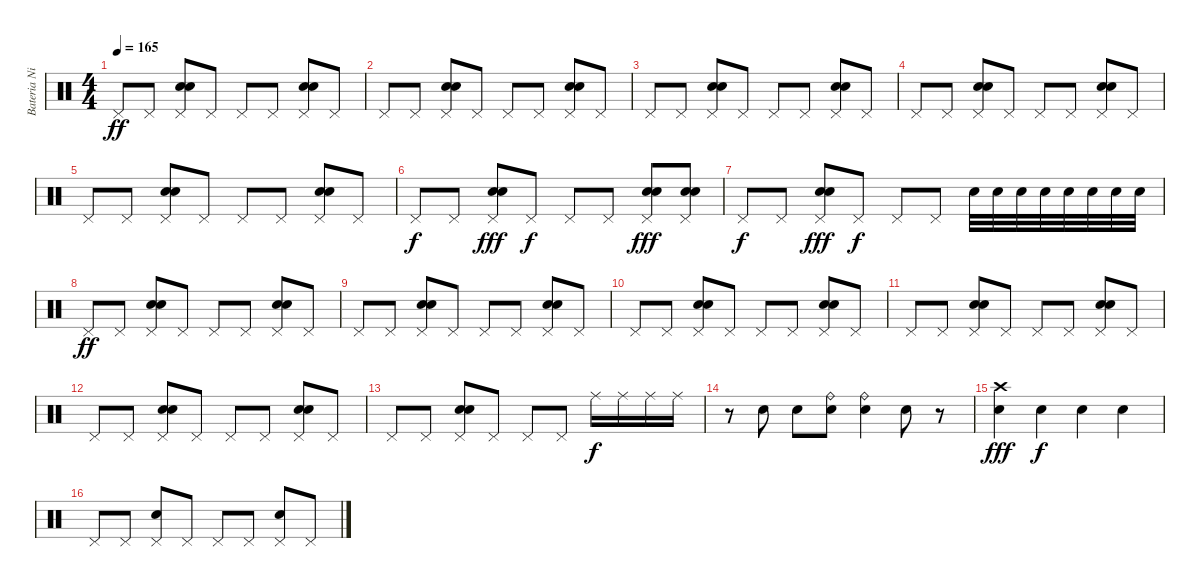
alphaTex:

\track ("Bateria Nicolas Cabrera" "Bateria Ni") {instrument percussion}
\staff {score}
\articulation defaults
\ts (4 4)
\tempo 165
\clef neutral
\ks c "Pedal Hi-Hat (hit)".8{dy ff} "Pedal Hi-Hat (hit)".8
("Electric Snare (hit)" "Electric Snare (hit)" "Pedal Hi-Hat (hit)").8 "Pedal Hi-Hat (hit)".8 "Pedal Hi-Hat (hit)".8 "Pedal Hi-Hat (hit)".8 ("Electric Snare (hit)" "Electric Snare (hit)" "Pedal Hi-Hat (hit)").8 "Pedal Hi-Hat (hit)".8 |
"Pedal Hi-Hat (hit)".8 "Pedal Hi-Hat (hit)".8 ("Electric Snare (hit)" "Electric Snare (hit)" "Pedal Hi-Hat (hit)").8 "Pedal Hi-Hat (hit)".8 "Pedal Hi-Hat (hit)".8 "Pedal Hi-Hat (hit)".8 ("Electric Snare (hit)" "Electric Snare (hit)" "Pedal Hi-Hat (hit)").8 "Pedal Hi-Hat (hit)".8 |
"Pedal Hi-Hat (hit)".8 "Pedal Hi-Hat (hit)".8 ("Electric Snare (hit)" "Electric Snare (hit)" "Pedal Hi-Hat (hit)").8 "Pedal Hi-Hat (hit)".8 "Pedal Hi-Hat (hit)".8 "Pedal Hi-Hat (hit)".8 ("Electric Snare (hit)" "Electric Snare (hit)" "Pedal Hi-Hat (hit)").8 "Pedal Hi-Hat (hit)".8 |
"Pedal Hi-Hat (hit)".8 "Pedal Hi-Hat (hit)".8 ("Electric Snare (hit)" "Electric Snare (hit)" "Pedal Hi-Hat (hit)").8 "Pedal Hi-Hat (hit)".8 "Pedal Hi-Hat (hit)".8 "Pedal Hi-Hat (hit)".8 ("Electric Snare (hit)" "Electric Snare (hit)" "Pedal Hi-Hat (hit)").8 "Pedal Hi-Hat (hit)".8 |
"Pedal Hi-Hat (hit)".8 "Pedal Hi-Hat (hit)".8 ("Electric Snare (hit)" "Electric Snare (hit)" "Pedal Hi-Hat (hit)").8 "Pedal Hi-Hat (hit)".8 "Pedal Hi-Hat (hit)".8 "Pedal Hi-Hat (hit)".8 ("Electric Snare (hit)" "Electric Snare (hit)" "Pedal Hi-Hat (hit)").8 "Pedal Hi-Hat (hit)".8 |
"Pedal Hi-Hat (hit)".8{dy f} "Pedal Hi-Hat (hit)".8 ("Electric Snare (hit)" "Electric Snare (hit)" "Pedal Hi-Hat (hit)").8{dy fff} "Pedal Hi-Hat (hit)".8{dy f} "Pedal Hi-Hat (hit)".8 "Pedal Hi-Hat (hit)".8 ("Electric Snare (hit)" "Electric Snare (hit)" "Pedal Hi-Hat (hit)").8{dy fff} ("Electric Snare (hit)" "Electric Snare (hit)" "Pedal Hi-Hat (hit)").8 |
"Pedal Hi-Hat (hit)".8{dy f} "Pedal Hi-Hat (hit)".8 ("Electric Snare (hit)" "Electric Snare (hit)" "Pedal Hi-Hat (hit)").8{dy fff} "Pedal Hi-Hat (hit)".8{dy f} "Pedal Hi-Hat (hit)".8 "Pedal Hi-Hat (hit)".8 "Electric Snare (hit)".32 "Electric Snare (hit)".32 "Electric Snare (hit)".32 "Snare (hit) 2".32 "Electric Snare (hit)".32 "Electric Snare (hit)".32 "Electric Snare (hit)".32 "Electric Snare (hit)".32 |
"Pedal Hi-Hat (hit)".8{dy ff} "Pedal Hi-Hat (hit)".8 ("Electric Snare (hit)" "Electric Snare (hit)" "Pedal Hi-Hat (hit)").8 "Pedal Hi-Hat (hit)".8 "Pedal Hi-Hat (hit)".8 "Pedal Hi-Hat (hit)".8 ("Electric Snare (hit)" "Electric Snare (hit)" "Pedal Hi-Hat (hit)").8 "Pedal Hi-Hat (hit)".8 |
"Pedal Hi-Hat (hit)".8 "Pedal Hi-Hat (hit)".8 ("Electric Snare (hit)" "Electric Snare (hit)" "Pedal Hi-Hat (hit)").8 "Pedal Hi-Hat (hit)".8 "Pedal Hi-Hat (hit)".8 "Pedal Hi-Hat (hit)".8 ("Electric Snare (hit)" "Electric Snare (hit)" "Pedal Hi-Hat (hit)").8 "Pedal Hi-Hat (hit)".8 |
"Pedal Hi-Hat (hit)".8 "Pedal Hi-Hat (hit)".8 ("Electric Snare (hit)" "Electric Snare (hit)" "Pedal Hi-Hat (hit)").8 "Pedal Hi-Hat (hit)".8 "Pedal Hi-Hat (hit)".8 "Pedal Hi-Hat (hit)".8 ("Electric Snare (hit)" "Electric Snare (hit)" "Pedal Hi-Hat (hit)").8 "Pedal Hi-Hat (hit)".8 |
"Pedal Hi-Hat (hit)".8 "Pedal Hi-Hat (hit)".8 ("Electric Snare (hit)" "Electric Snare (hit)" "Pedal Hi-Hat (hit)").8 "Pedal Hi-Hat (hit)".8 "Pedal Hi-Hat (hit)".8 "Pedal Hi-Hat (hit)".8 ("Electric Snare (hit)" "Electric Snare (hit)" "Pedal Hi-Hat (hit)").8 "Pedal Hi-Hat (hit)".8 |
"Pedal Hi-Hat (hit)".8 "Pedal Hi-Hat (hit)".8 ("Electric Snare (hit)" "Electric Snare (hit)" "Pedal Hi-Hat (hit)").8 "Pedal Hi-Hat (hit)".8 "Pedal Hi-Hat (hit)".8 "Pedal Hi-Hat (hit)".8 ("Electric Snare (hit)" "Electric Snare (hit)" "Pedal Hi-Hat (hit)").8 "Pedal Hi-Hat (hit)".8 |
"Pedal Hi-Hat (hit)".8 "Pedal Hi-Hat (hit)".8 ("Electric Snare (hit)" "Electric Snare (hit)" "Pedal Hi-Hat (hit)").8 "Pedal Hi-Hat (hit)".8 "Pedal Hi-Hat (hit)".8 "Pedal Hi-Hat (hit)".8 "Ride (middle)".16{dy f} "Ride (middle)".16 "Ride (middle)".16 "Ride (middle)".16 |
r.8 "Electric Snare (hit)".8 "Electric Snare (hit)".8 ("Ride (bell)" "Electric Snare (hit)").8 ("Ride (bell)" "Electric Snare (hit)").4 "Electric Snare (hit)".8 r.8 |
("Crash high (hit)" "Electric Snare (hit)").4{dy fff} "Electric Snare (hit)".4{dy f} "Electric Snare (hit)".4 "Electric Snare (hit)".4 |
"Pedal Hi-Hat (hit)".8 "Pedal Hi-Hat (hit)".8 ("Electric Snare (hit)" "Pedal Hi-Hat (hit)").8 "Pedal Hi-Hat (hit)".8 "Pedal Hi-Hat (hit)".8 "Pedal Hi-Hat (hit)".8 ("Electric Snare (hit)" "Pedal Hi-Hat (hit)").8 "Pedal Hi-Hat (hit)".8
